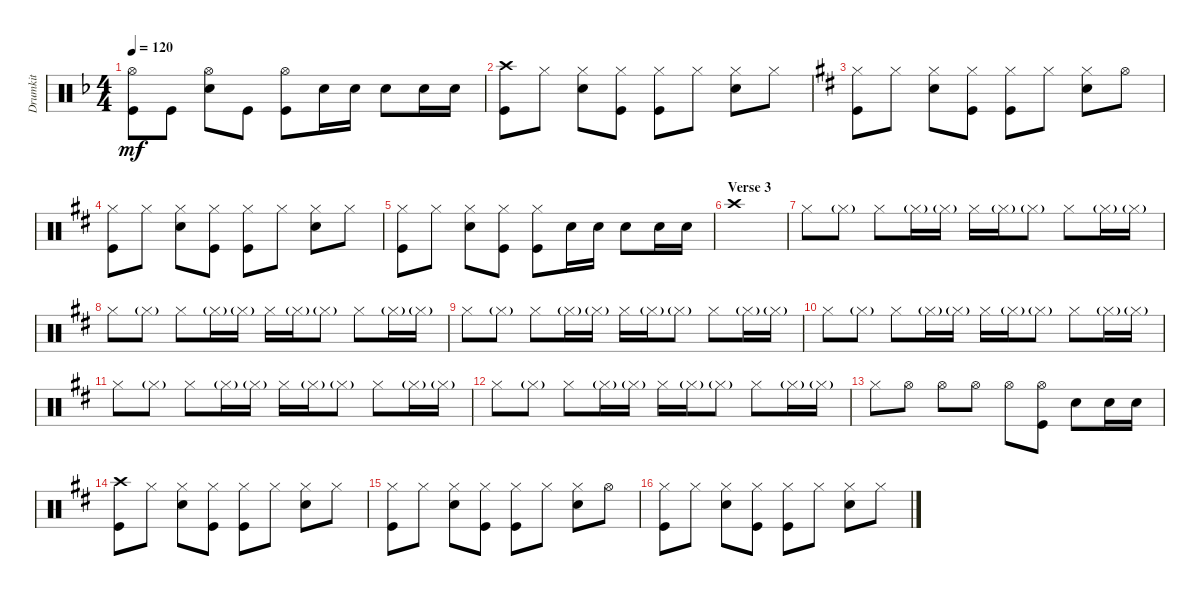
\track ("Drumkit" "Drumkit") {instrument percussion}
\staff {score}
\articulation defaults
\ts (4 4)
\tempo 120
\clef neutral
\ks f
("Kick (hit)" "Hi-Hat (open)").8{dy mf} "Kick (hit)".8 ("Hi-Hat (open)" "Snare (hit) 2").8 "Kick (hit)".8 ("Hi-Hat (open)" "Kick (hit)").8 "Snare (hit) 2".16 "Snare (hit) 2".16 "Snare (hit) 2".8 "Snare (hit) 2".16 "Snare (hit) 2".16 |
("Kick (hit)" "Crash high (hit)").8 "Hi-Hat (closed)".8 ("Hi-Hat (closed)" "Snare (hit) 2").8 ("Hi-Hat (closed)" "Kick (hit)").8 ("Hi-Hat (closed)" "Kick (hit)").8 "Hi-Hat (closed)".8 ("Hi-Hat (closed)" "Snare (hit) 2").8 "Hi-Hat (closed)".8 |
\ks d
("Kick (hit)" "Hi-Hat (closed)").8 "Hi-Hat (closed)".8 ("Hi-Hat (closed)" "Snare (hit) 2").8 ("Hi-Hat (closed)" "Kick (hit)").8 ("Hi-Hat (closed)" "Kick (hit)").8 "Hi-Hat (closed)".8 ("Hi-Hat (closed)" "Snare (hit) 2").8 "Hi-Hat (open)".8 |
("Kick (hit)" "Hi-Hat (closed)").8 "Hi-Hat (closed)".8 ("Hi-Hat (closed)" "Snare (hit) 2").8 ("Hi-Hat (closed)" "Kick (hit)").8 ("Hi-Hat (closed)" "Kick (hit)").8 "Hi-Hat (closed)".8 ("Hi-Hat (closed)" "Snare (hit) 2").8 "Hi-Hat (closed)".8 |
("Kick (hit)" "Hi-Hat (closed)").8 "Hi-Hat (closed)".8 ("Hi-Hat (closed)" "Snare (hit) 2").8 ("Hi-Hat (closed)" "Kick (hit)").8 ("Hi-Hat (closed)" "Kick (hit)").8 "Snare (hit) 2".16 "Snare (hit) 2".16 "Snare (hit) 2".8 "Snare (hit) 2".16 "Snare (hit) 2".16 |
\section ("" "Verse 3")
"Crash high (hit)".1 |
"Hi-Hat (closed)".8 "Hi-Hat (closed)"{g}.8 "Hi-Hat (closed)".8 "Hi-Hat (closed)"{g}.16 "Hi-Hat (closed)"{g}.16 "Hi-Hat (closed)".16 "Hi-Hat (closed)"{g}.16 "Hi-Hat (closed)"{g}.8 "Hi-Hat (closed)".8 "Hi-Hat (closed)"{g}.16 "Hi-Hat (closed)"{g}.16 |
"Hi-Hat (closed)".8 "Hi-Hat (closed)"{g}.8 "Hi-Hat (closed)".8 "Hi-Hat (closed)"{g}.16 "Hi-Hat (closed)"{g}.16 "Hi-Hat (closed)".16 "Hi-Hat (closed)"{g}.16 "Hi-Hat (closed)"{g}.8 "Hi-Hat (closed)".8 "Hi-Hat (closed)"{g}.16 "Hi-Hat (closed)"{g}.16 |
"Hi-Hat (closed)".8 "Hi-Hat (closed)"{g}.8 "Hi-Hat (closed)".8 "Hi-Hat (closed)"{g}.16 "Hi-Hat (closed)"{g}.16 "Hi-Hat (closed)".16 "Hi-Hat (closed)"{g}.16 "Hi-Hat (closed)"{g}.8 "Hi-Hat (closed)".8 "Hi-Hat (closed)"{g}.16 "Hi-Hat (closed)"{g}.16 |
"Hi-Hat (closed)".8 "Hi-Hat (closed)"{g}.8 "Hi-Hat (closed)".8 "Hi-Hat (closed)"{g}.16 "Hi-Hat (closed)"{g}.16 "Hi-Hat (closed)".16 "Hi-Hat (closed)"{g}.16 "Hi-Hat (closed)"{g}.8 "Hi-Hat (closed)".8 "Hi-Hat (closed)"{g}.16 "Hi-Hat (closed)"{g}.16 |
"Hi-Hat (closed)".8 "Hi-Hat (closed)"{g}.8 "Hi-Hat (closed)".8 "Hi-Hat (closed)"{g}.16 "Hi-Hat (closed)"{g}.16 "Hi-Hat (closed)".16 "Hi-Hat (closed)"{g}.16 "Hi-Hat (closed)"{g}.8 "Hi-Hat (closed)".8 "Hi-Hat (closed)"{g}.16 "Hi-Hat (closed)"{g}.16 |
"Hi-Hat (closed)".8 "Hi-Hat (closed)"{g}.8 "Hi-Hat (closed)".8 "Hi-Hat (closed)"{g}.16 "Hi-Hat (closed)"{g}.16 "Hi-Hat (closed)".16 "Hi-Hat (closed)"{g}.16 "Hi-Hat (closed)"{g}.8 "Hi-Hat (closed)".8 "Hi-Hat (closed)"{g}.16 "Hi-Hat (closed)"{g}.16 |
"Hi-Hat (closed)".8 "Hi-Hat (open)".8 "Hi-Hat (open)".8 "Hi-Hat (open)".8 "Hi-Hat (open)".8 ("Kick (hit)" "Hi-Hat (open)").8 "Snare (hit) 2".8 "Snare (hit) 2".16 "Snare (hit) 2".16 |
("Kick (hit)" "Crash high (hit)").8 "Hi-Hat (closed)".8 ("Hi-Hat (closed)" "Snare (hit) 2").8 ("Hi-Hat (closed)" "Kick (hit)").8 ("Hi-Hat (closed)" "Kick (hit)").8 "Hi-Hat (closed)".8 ("Hi-Hat (closed)" "Snare (hit) 2").8 "Hi-Hat (closed)".8 |
("Kick (hit)" "Hi-Hat (closed)").8 "Hi-Hat (closed)".8 ("Hi-Hat (closed)" "Snare (hit) 2").8 ("Hi-Hat (closed)" "Kick (hit)").8 ("Hi-Hat (closed)" "Kick (hit)").8 "Hi-Hat (closed)".8 ("Hi-Hat (closed)" "Snare (hit) 2").8 "Hi-Hat (open)".8 |
("Kick (hit)" "Hi-Hat (closed)").8 "Hi-Hat (closed)".8 ("Hi-Hat (closed)" "Snare (hit) 2").8 ("Hi-Hat (closed)" "Kick (hit)").8 ("Hi-Hat (closed)" "Kick (hit)").8 "Hi-Hat (closed)".8 ("Hi-Hat (closed)" "Snare (hit) 2").8 "Hi-Hat (closed)".8
